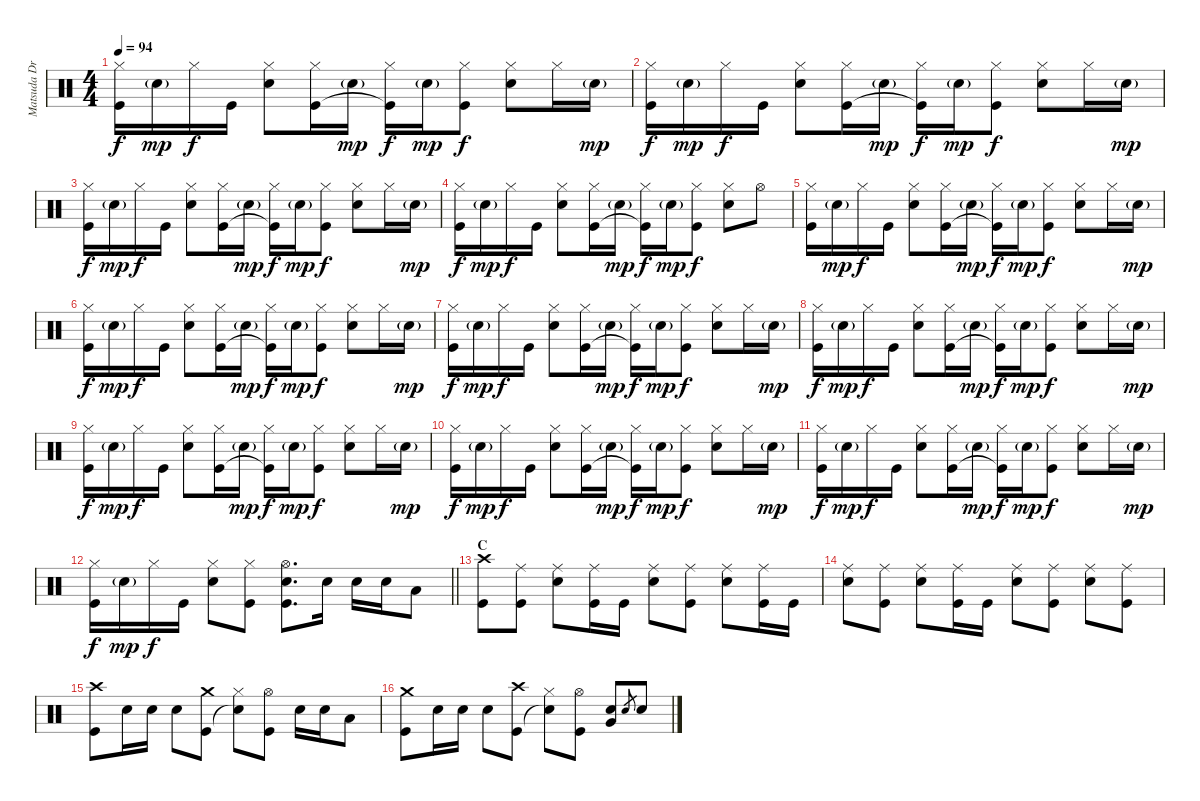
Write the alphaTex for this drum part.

\track ("Matsuda Drums" "Matsuda Dr") {instrument percussion}
\staff {score}
\articulation defaults
\ts (4 4)
\tempo 94
\clef neutral
\ks c
("Hi-Hat (closed)" "Kick (hit)").16{dy f} "Snare (hit) 2"{g}.16{dy mp} "Hi-Hat (closed)".16{dy f} "Kick (hit)".16 ("Hi-Hat (closed)" "Snare (hit) 2").8 ("Hi-Hat (closed)" "Kick (hit)").16 "Snare (hit) 2"{g}.16{dy mp} ("Hi-Hat (closed)" "Kick (hit)"{t}).16{dy f} "Snare (hit) 2"{g}.16{dy mp} ("Hi-Hat (closed)" "Kick (hit)").8{dy f} ("Hi-Hat (closed)" "Snare (hit) 2").8 "Hi-Hat (closed)".16 "Snare (hit) 2"{g}.16{dy mp} |
("Hi-Hat (closed)" "Kick (hit)").16{dy f} "Snare (hit) 2"{g}.16{dy mp} "Hi-Hat (closed)".16{dy f} "Kick (hit)".16 ("Hi-Hat (closed)" "Snare (hit) 2").8 ("Hi-Hat (closed)" "Kick (hit)").16 "Snare (hit) 2"{g}.16{dy mp} ("Hi-Hat (closed)" "Kick (hit)"{t}).16{dy f} "Snare (hit) 2"{g}.16{dy mp} ("Hi-Hat (closed)" "Kick (hit)").8{dy f} ("Hi-Hat (closed)" "Snare (hit) 2").8 "Hi-Hat (closed)".16 "Snare (hit) 2"{g}.16{dy mp} |
("Hi-Hat (closed)" "Kick (hit)").16{dy f} "Snare (hit) 2"{g}.16{dy mp} "Hi-Hat (closed)".16{dy f} "Kick (hit)".16 ("Hi-Hat (closed)" "Snare (hit) 2").8 ("Hi-Hat (closed)" "Kick (hit)").16 "Snare (hit) 2"{g}.16{dy mp} ("Hi-Hat (closed)" "Kick (hit)"{t}).16{dy f} "Snare (hit) 2"{g}.16{dy mp} ("Hi-Hat (closed)" "Kick (hit)").8{dy f} ("Hi-Hat (closed)" "Snare (hit) 2").8 "Hi-Hat (closed)".16 "Snare (hit) 2"{g}.16{dy mp} |
("Hi-Hat (closed)" "Kick (hit)").16{dy f} "Snare (hit) 2"{g}.16{dy mp} "Hi-Hat (closed)".16{dy f} "Kick (hit)".16 ("Hi-Hat (closed)" "Snare (hit) 2").8 ("Hi-Hat (closed)" "Kick (hit)").16 "Snare (hit) 2"{g}.16{dy mp} ("Hi-Hat (closed)" "Kick (hit)"{t}).16{dy f} "Snare (hit) 2"{g}.16{dy mp} ("Hi-Hat (closed)" "Kick (hit)").8{dy f} ("Hi-Hat (closed)" "Snare (hit) 2").8 "Hi-Hat (open)".8 |
("Hi-Hat (closed)" "Kick (hit)").16 "Snare (hit) 2"{g}.16{dy mp} "Hi-Hat (closed)".16{dy f} "Kick (hit)".16 ("Hi-Hat (closed)" "Snare (hit) 2").8 ("Hi-Hat (closed)" "Kick (hit)").16 "Snare (hit) 2"{g}.16{dy mp} ("Hi-Hat (closed)" "Kick (hit)"{t}).16{dy f} "Snare (hit) 2"{g}.16{dy mp} ("Hi-Hat (closed)" "Kick (hit)").8{dy f} ("Hi-Hat (closed)" "Snare (hit) 2").8 "Hi-Hat (closed)".16 "Snare (hit) 2"{g}.16{dy mp} |
("Hi-Hat (closed)" "Kick (hit)").16{dy f} "Snare (hit) 2"{g}.16{dy mp} "Hi-Hat (closed)".16{dy f} "Kick (hit)".16 ("Hi-Hat (closed)" "Snare (hit) 2").8 ("Hi-Hat (closed)" "Kick (hit)").16 "Snare (hit) 2"{g}.16{dy mp} ("Hi-Hat (closed)" "Kick (hit)"{t}).16{dy f} "Snare (hit) 2"{g}.16{dy mp} ("Hi-Hat (closed)" "Kick (hit)").8{dy f} ("Hi-Hat (closed)" "Snare (hit) 2").8 "Hi-Hat (closed)".16 "Snare (hit) 2"{g}.16{dy mp} |
("Hi-Hat (closed)" "Kick (hit)").16{dy f} "Snare (hit) 2"{g}.16{dy mp} "Hi-Hat (closed)".16{dy f} "Kick (hit)".16 ("Hi-Hat (closed)" "Snare (hit) 2").8 ("Hi-Hat (closed)" "Kick (hit)").16 "Snare (hit) 2"{g}.16{dy mp} ("Hi-Hat (closed)" "Kick (hit)"{t}).16{dy f} "Snare (hit) 2"{g}.16{dy mp} ("Hi-Hat (closed)" "Kick (hit)").8{dy f} ("Hi-Hat (closed)" "Snare (hit) 2").8 "Hi-Hat (closed)".16 "Snare (hit) 2"{g}.16{dy mp} |
("Hi-Hat (closed)" "Kick (hit)").16{dy f} "Snare (hit) 2"{g}.16{dy mp} "Hi-Hat (closed)".16{dy f} "Kick (hit)".16 ("Hi-Hat (closed)" "Snare (hit) 2").8 ("Hi-Hat (closed)" "Kick (hit)").16 "Snare (hit) 2"{g}.16{dy mp} ("Hi-Hat (closed)" "Kick (hit)"{t}).16{dy f} "Snare (hit) 2"{g}.16{dy mp} ("Hi-Hat (closed)" "Kick (hit)").8{dy f} ("Hi-Hat (closed)" "Snare (hit) 2").8 "Hi-Hat (closed)".16 "Snare (hit) 2"{g}.16{dy mp} |
("Hi-Hat (closed)" "Kick (hit)").16{dy f} "Snare (hit) 2"{g}.16{dy mp} "Hi-Hat (closed)".16{dy f} "Kick (hit)".16 ("Hi-Hat (closed)" "Snare (hit) 2").8 ("Hi-Hat (closed)" "Kick (hit)").16 "Snare (hit) 2"{g}.16{dy mp} ("Hi-Hat (closed)" "Kick (hit)"{t}).16{dy f} "Snare (hit) 2"{g}.16{dy mp} ("Hi-Hat (closed)" "Kick (hit)").8{dy f} ("Hi-Hat (closed)" "Snare (hit) 2").8 "Hi-Hat (closed)".16 "Snare (hit) 2"{g}.16{dy mp} |
("Hi-Hat (closed)" "Kick (hit)").16{dy f} "Snare (hit) 2"{g}.16{dy mp} "Hi-Hat (closed)".16{dy f} "Kick (hit)".16 ("Hi-Hat (closed)" "Snare (hit) 2").8 ("Hi-Hat (closed)" "Kick (hit)").16 "Snare (hit) 2"{g}.16{dy mp} ("Hi-Hat (closed)" "Kick (hit)"{t}).16{dy f} "Snare (hit) 2"{g}.16{dy mp} ("Hi-Hat (closed)" "Kick (hit)").8{dy f} ("Hi-Hat (closed)" "Snare (hit) 2").8 "Hi-Hat (closed)".16 "Snare (hit) 2"{g}.16{dy mp} |
("Hi-Hat (closed)" "Kick (hit)").16{dy f} "Snare (hit) 2"{g}.16{dy mp} "Hi-Hat (closed)".16{dy f} "Kick (hit)".16 ("Hi-Hat (closed)" "Snare (hit) 2").8 ("Hi-Hat (closed)" "Kick (hit)").16 "Snare (hit) 2"{g}.16{dy mp} ("Hi-Hat (closed)" "Kick (hit)"{t}).16{dy f} "Snare (hit) 2"{g}.16{dy mp} ("Hi-Hat (closed)" "Kick (hit)").8{dy f} ("Hi-Hat (closed)" "Snare (hit) 2").8 "Hi-Hat (closed)".16 "Snare (hit) 2"{g}.16{dy mp} |
\barLineRight lightlight
("Hi-Hat (closed)" "Kick (hit)").16{dy f} "Snare (hit) 2"{g}.16{dy mp} "Hi-Hat (closed)".16{dy f} "Kick (hit)".16 ("Hi-Hat (closed)" "Snare (hit) 2").8 ("Hi-Hat (closed)" "Kick (hit)").8 ("Hi-Hat (open)" "Snare (hit) 2" "Kick (hit)").8{d} "Snare (hit) 2".16 "Snare (hit) 2".16 "Snare (hit) 2".16 "Low Tom (hit)".8 |
\section ("" "C")
("Crash high (hit)" "Kick (hit)").8 ("Ride (middle)" "Kick (hit)").8 ("Ride (middle)" "Snare (hit) 2").8 ("Ride (middle)" "Kick (hit)").16 "Kick (hit)".16 ("Ride (middle)" "Snare (hit) 2").8 ("Ride (middle)" "Kick (hit)").8 ("Ride (middle)" "Snare (hit) 2").8 ("Ride (middle)" "Kick (hit)").16 "Kick (hit)".16 |
("Ride (middle)" "Snare (hit) 2").8 ("Ride (middle)" "Kick (hit)").8 ("Ride (middle)" "Snare (hit) 2").8 ("Ride (middle)" "Kick (hit)").16 "Kick (hit)".16 ("Ride (middle)" "Snare (hit) 2").8 ("Ride (middle)" "Kick (hit)").8 ("Ride (middle)" "Snare (hit) 2").8 ("Ride (middle)" "Kick (hit)").8 |
("Crash high (hit)" "Kick (hit)").8 "Snare (hit) 2".16 "Snare (hit) 2".16 "Snare (hit) 2".8 ("Crash medium (hit)" "Kick (hit)").8 ("Hi-Hat (closed)" "Snare (hit)"{t}).8 ("Hi-Hat (open)" "Kick (hit)").8 "Snare (hit) 2".16 "Snare (hit) 2".16 "Low Tom (hit)".8 |
("Crash medium (hit)" "Kick (hit)").8 "Snare (hit) 2".16 "Snare (hit) 2".16 "Snare (hit) 2".8 ("Crash high (hit)" "Kick (hit)").8 ("Hi-Hat (closed)" "Snare (hit)"{t}).8 ("Hi-Hat (open)" "Kick (hit)").8 ("Snare (hit) 2" "Very Low Tom (hit)").8 "Snare (hit) 2".8{gr} "Snare (hit) 2".8
